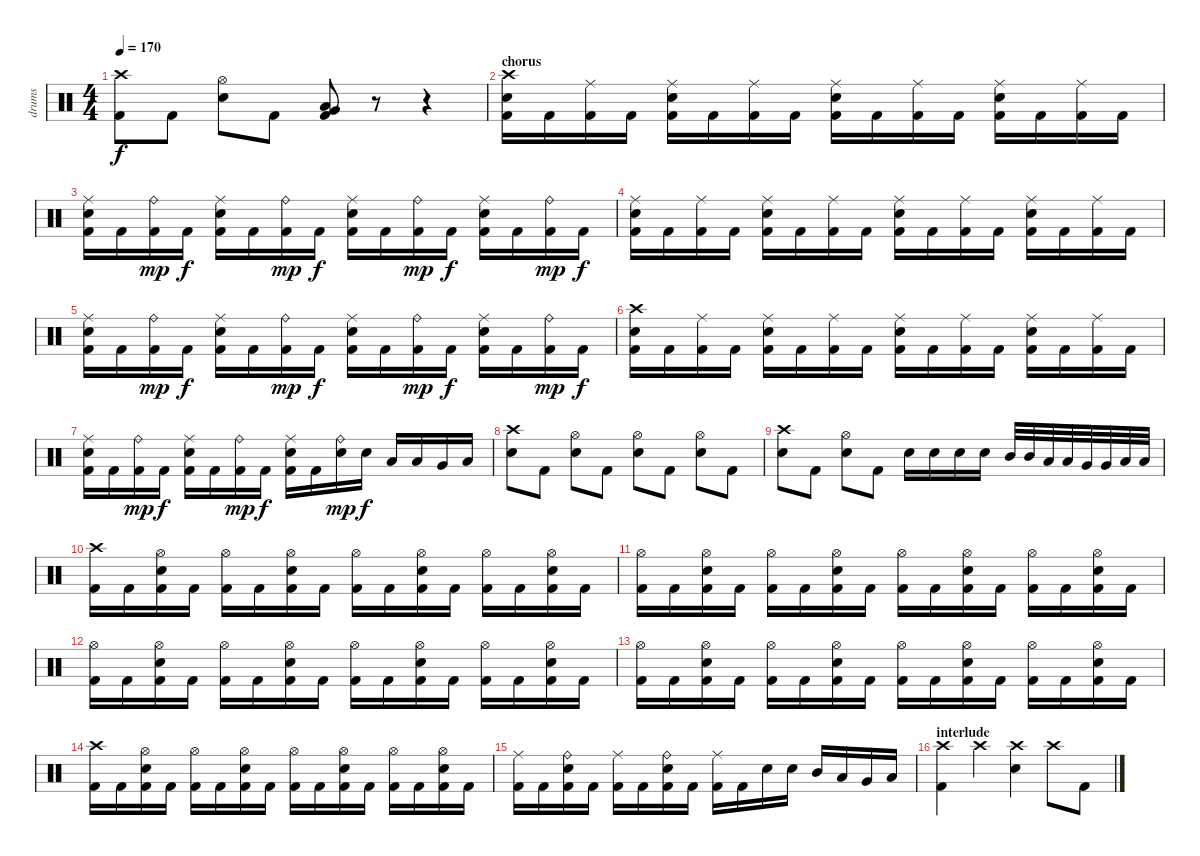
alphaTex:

\track ("drums" "drums") {instrument percussion}
\staff {score}
\articulation defaults
\ts (4 4)
\tempo 170
\clef neutral
\ks c
("Crash high (hit)" "Kick (hit) 2").8{dy f} "Kick (hit) 2".8 ("Hi-Hat (open)" "Electric Snare (hit)").8 "Kick (hit) 2".8 ("Very Low Tom (hit)" "Low Floor Tom (hit)" "Kick (hit) 2").8 r.8 r.4 |
\section ("" "chorus")
("Crash high (hit)" "Electric Snare (hit)" "Kick (hit) 2").16 "Kick (hit) 2".16 ("Ride (middle)" "Kick (hit) 2").16 "Kick (hit) 2".16 ("Ride (middle)" "Electric Snare (hit)" "Kick (hit) 2").16 "Kick (hit) 2".16 ("Ride (middle)" "Kick (hit) 2").16 "Kick (hit) 2".16 ("Ride (middle)" "Electric Snare (hit)" "Kick (hit) 2").16 "Kick (hit) 2".16 ("Ride (middle)" "Kick (hit) 2").16 "Kick (hit) 2".16 ("Ride (middle)" "Electric Snare (hit)" "Kick (hit) 2").16 "Kick (hit) 2".16 ("Ride (middle)" "Kick (hit) 2").16 "Kick (hit) 2".16 |
("Ride (middle)" "Electric Snare (hit)" "Kick (hit) 2").16 "Kick (hit) 2".16 ("Ride (bell)" "Kick (hit) 2").16{dy mp} "Kick (hit) 2".16{dy f} ("Ride (middle)" "Electric Snare (hit)" "Kick (hit) 2").16 "Kick (hit) 2".16 ("Ride (bell)" "Kick (hit) 2").16{dy mp} "Kick (hit) 2".16{dy f} ("Ride (middle)" "Electric Snare (hit)" "Kick (hit) 2").16 "Kick (hit) 2".16 ("Ride (bell)" "Kick (hit) 2").16{dy mp} "Kick (hit) 2".16{dy f} ("Ride (middle)" "Electric Snare (hit)" "Kick (hit) 2").16 "Kick (hit) 2".16 ("Ride (bell)" "Kick (hit) 2").16{dy mp} "Kick (hit) 2".16{dy f} |
("Ride (middle)" "Electric Snare (hit)" "Kick (hit) 2").16 "Kick (hit) 2".16 ("Ride (middle)" "Kick (hit) 2").16 "Kick (hit) 2".16 ("Ride (middle)" "Electric Snare (hit)" "Kick (hit) 2").16 "Kick (hit) 2".16 ("Ride (middle)" "Kick (hit) 2").16 "Kick (hit) 2".16 ("Ride (middle)" "Electric Snare (hit)" "Kick (hit) 2").16 "Kick (hit) 2".16 ("Ride (middle)" "Kick (hit) 2").16 "Kick (hit) 2".16 ("Ride (middle)" "Electric Snare (hit)" "Kick (hit) 2").16 "Kick (hit) 2".16 ("Ride (middle)" "Kick (hit) 2").16 "Kick (hit) 2".16 |
("Ride (middle)" "Electric Snare (hit)" "Kick (hit) 2").16 "Kick (hit) 2".16 ("Ride (bell)" "Kick (hit) 2").16{dy mp} "Kick (hit) 2".16{dy f} ("Ride (middle)" "Electric Snare (hit)" "Kick (hit) 2").16 "Kick (hit) 2".16 ("Ride (bell)" "Kick (hit) 2").16{dy mp} "Kick (hit) 2".16{dy f} ("Ride (middle)" "Electric Snare (hit)" "Kick (hit) 2").16 "Kick (hit) 2".16 ("Ride (bell)" "Kick (hit) 2").16{dy mp} "Kick (hit) 2".16{dy f} ("Ride (middle)" "Electric Snare (hit)" "Kick (hit) 2").16 "Kick (hit) 2".16 ("Ride (bell)" "Kick (hit) 2").16{dy mp} "Kick (hit) 2".16{dy f} |
("Crash high (hit)" "Electric Snare (hit)" "Kick (hit) 2").16 "Kick (hit) 2".16 ("Ride (middle)" "Kick (hit) 2").16 "Kick (hit) 2".16 ("Ride (middle)" "Electric Snare (hit)" "Kick (hit) 2").16 "Kick (hit) 2".16 ("Ride (middle)" "Kick (hit) 2").16 "Kick (hit) 2".16 ("Ride (middle)" "Electric Snare (hit)" "Kick (hit) 2").16 "Kick (hit) 2".16 ("Ride (middle)" "Kick (hit) 2").16 "Kick (hit) 2".16 ("Ride (middle)" "Electric Snare (hit)" "Kick (hit) 2").16 "Kick (hit) 2".16 ("Ride (middle)" "Kick (hit) 2").16 "Kick (hit) 2".16 |
("Ride (middle)" "Electric Snare (hit)" "Kick (hit) 2").16 "Kick (hit) 2".16 ("Ride (bell)" "Kick (hit) 2").16{dy mp} "Kick (hit) 2".16{dy f} ("Ride (middle)" "Electric Snare (hit)" "Kick (hit) 2").16 "Kick (hit) 2".16 ("Ride (bell)" "Kick (hit) 2").16{dy mp} "Kick (hit) 2".16{dy f} ("Ride (middle)" "Electric Snare (hit)" "Kick (hit) 2").16 "Kick (hit) 2".16 ("Ride (bell)" "Electric Snare (hit)").16{dy mp} "Electric Snare (hit)".16{dy f} "Low Tom (hit)".16 "Low Tom (hit)".16 "Very Low Tom (hit)".16 "Low Floor Tom (hit)".16 |
("Crash high (hit)" "Electric Snare (hit)").8 "Kick (hit) 2".8 ("Hi-Hat (open)" "Electric Snare (hit)").8 "Kick (hit) 2".8 ("Hi-Hat (open)" "Electric Snare (hit)").8 "Kick (hit) 2".8 ("Hi-Hat (open)" "Electric Snare (hit)").8 "Kick (hit) 2".8 |
("Crash high (hit)" "Electric Snare (hit)").8 "Kick (hit) 2".8 ("Hi-Hat (open)" "Electric Snare (hit)").8 "Kick (hit) 2".8 "Electric Snare (hit)".16 "Electric Snare (hit)".16 "Electric Snare (hit)".16 "Electric Snare (hit)".16 "Mid Tom (hit)".32 "Mid Tom (hit)".32 "Low Tom (hit)".32 "Low Tom (hit)".32 "Very Low Tom (hit)".32 "Very Low Tom (hit)".32 "Low Floor Tom (hit)".32 "Low Floor Tom (hit)".32 |
("Crash high (hit)" "Kick (hit) 2").16 "Kick (hit) 2".16 ("Hi-Hat (open)" "Electric Snare (hit)" "Kick (hit) 2").16 "Kick (hit) 2".16 ("Hi-Hat (open)" "Kick (hit) 2").16 "Kick (hit) 2".16 ("Hi-Hat (open)" "Electric Snare (hit)" "Kick (hit) 2").16 "Kick (hit) 2".16 ("Hi-Hat (open)" "Kick (hit) 2").16 "Kick (hit) 2".16 ("Hi-Hat (open)" "Electric Snare (hit)" "Kick (hit) 2").16 "Kick (hit) 2".16 ("Hi-Hat (open)" "Kick (hit) 2").16 "Kick (hit) 2".16 ("Hi-Hat (open)" "Electric Snare (hit)" "Kick (hit) 2").16 "Kick (hit) 2".16 |
("Hi-Hat (open)" "Kick (hit) 2").16 "Kick (hit) 2".16 ("Hi-Hat (open)" "Electric Snare (hit)" "Kick (hit) 2").16 "Kick (hit) 2".16 ("Hi-Hat (open)" "Kick (hit) 2").16 "Kick (hit) 2".16 ("Hi-Hat (open)" "Electric Snare (hit)" "Kick (hit) 2").16 "Kick (hit) 2".16 ("Hi-Hat (open)" "Kick (hit) 2").16 "Kick (hit) 2".16 ("Hi-Hat (open)" "Electric Snare (hit)" "Kick (hit) 2").16 "Kick (hit) 2".16 ("Hi-Hat (open)" "Kick (hit) 2").16 "Kick (hit) 2".16 ("Hi-Hat (open)" "Electric Snare (hit)" "Kick (hit) 2").16 "Kick (hit) 2".16 |
("Hi-Hat (open)" "Kick (hit) 2").16 "Kick (hit) 2".16 ("Hi-Hat (open)" "Electric Snare (hit)" "Kick (hit) 2").16 "Kick (hit) 2".16 ("Hi-Hat (open)" "Kick (hit) 2").16 "Kick (hit) 2".16 ("Hi-Hat (open)" "Electric Snare (hit)" "Kick (hit) 2").16 "Kick (hit) 2".16 ("Hi-Hat (open)" "Kick (hit) 2").16 "Kick (hit) 2".16 ("Hi-Hat (open)" "Electric Snare (hit)" "Kick (hit) 2").16 "Kick (hit) 2".16 ("Hi-Hat (open)" "Kick (hit) 2").16 "Kick (hit) 2".16 ("Hi-Hat (open)" "Electric Snare (hit)" "Kick (hit) 2").16 "Kick (hit) 2".16 |
("Hi-Hat (open)" "Kick (hit) 2").16 "Kick (hit) 2".16 ("Hi-Hat (open)" "Electric Snare (hit)" "Kick (hit) 2").16 "Kick (hit) 2".16 ("Hi-Hat (open)" "Kick (hit) 2").16 "Kick (hit) 2".16 ("Hi-Hat (open)" "Electric Snare (hit)" "Kick (hit) 2").16 "Kick (hit) 2".16 ("Hi-Hat (open)" "Kick (hit) 2").16 "Kick (hit) 2".16 ("Hi-Hat (open)" "Electric Snare (hit)" "Kick (hit) 2").16 "Kick (hit) 2".16 ("Hi-Hat (open)" "Kick (hit) 2").16 "Kick (hit) 2".16 ("Hi-Hat (open)" "Electric Snare (hit)" "Kick (hit) 2").16 "Kick (hit) 2".16 |
("Crash high (hit)" "Kick (hit) 2").16 "Kick (hit) 2".16 ("Hi-Hat (open)" "Electric Snare (hit)" "Kick (hit) 2").16 "Kick (hit) 2".16 ("Hi-Hat (open)" "Kick (hit) 2").16 "Kick (hit) 2".16 ("Hi-Hat (open)" "Electric Snare (hit)" "Kick (hit) 2").16 "Kick (hit) 2".16 ("Hi-Hat (open)" "Kick (hit) 2").16 "Kick (hit) 2".16 ("Hi-Hat (open)" "Electric Snare (hit)" "Kick (hit) 2").16 "Kick (hit) 2".16 ("Hi-Hat (open)" "Kick (hit) 2").16 "Kick (hit) 2".16 ("Hi-Hat (open)" "Electric Snare (hit)" "Kick (hit) 2").16 "Kick (hit) 2".16 |
("Ride (middle)" "Kick (hit) 2").16 "Kick (hit) 2".16 ("Ride (bell)" "Electric Snare (hit)" "Kick (hit) 2").16 "Kick (hit) 2".16 ("Ride (middle)" "Kick (hit) 2").16 "Kick (hit) 2".16 ("Ride (bell)" "Electric Snare (hit)" "Kick (hit) 2").16 "Kick (hit) 2".16 ("Ride (middle)" "Kick (hit) 2").16 "Kick (hit) 2".16 "Electric Snare (hit)".16 "Electric Snare (hit)".16 "Mid Tom (hit)".16 "Low Tom (hit)".16 "Very Low Tom (hit)".16 "Low Floor Tom (hit)".16 |
\section ("" "interlude")
("Crash high (hit)" "Kick (hit) 2").4 "Crash high (hit)".4 ("Crash high (hit)" "Electric Snare (hit)").4 "Crash high (hit)".8 "Kick (hit) 2".8
